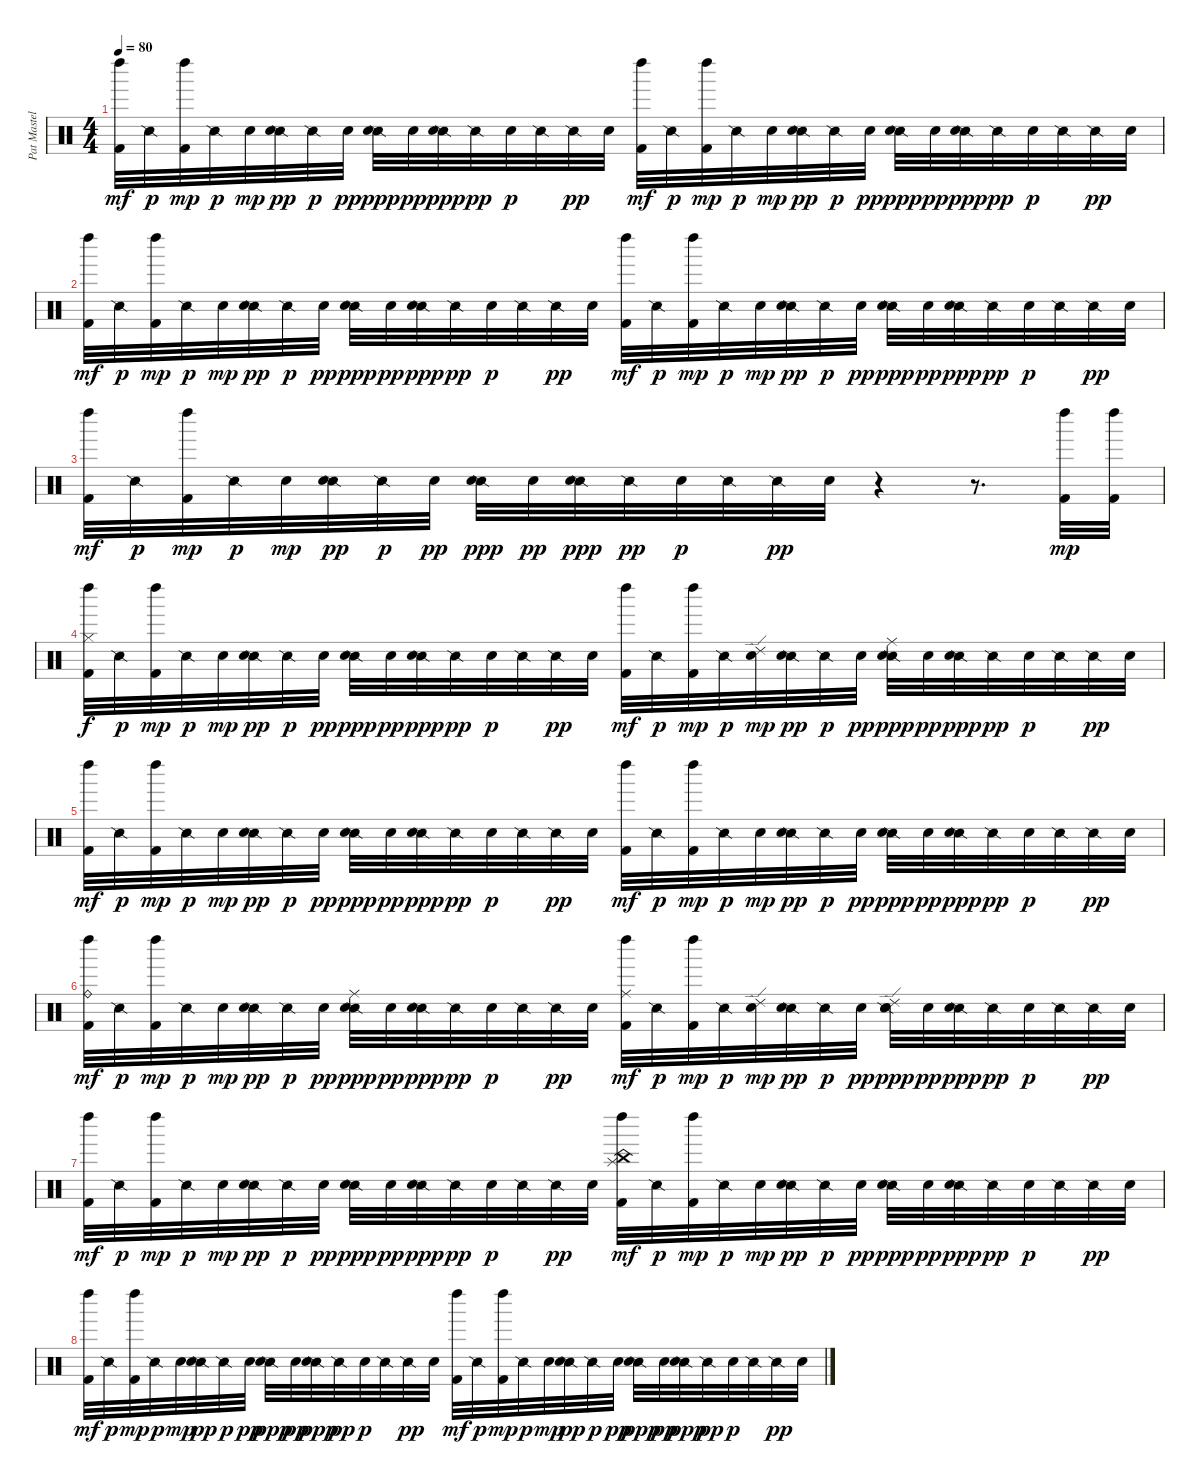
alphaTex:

\track ("Pat Mastelotto (Traps / Buttons)" "Pat Mastel") {instrument percussion}
\staff {score}
\articulation defaults
\ts (4 4)
\tempo 80
\clef neutral
\ks c
("Left Maraca (hit)" "Kick (hit) 2").32{dy mf} "Snare (side stick) 2".32{dy p} ("Left Maraca (hit)" "Kick (hit) 2").32{dy mp} "Snare (side stick) 2".32{dy p} "Electric Snare (hit)".32{dy mp} ("Snare (side stick) 2" "Electric Snare (hit)").32{dy pp} "Snare (side stick) 2".32{dy p} "Electric Snare (hit)".32{dy pp} ("Snare (side stick) 2" "Electric Snare (hit)").32{dy ppp} "Electric Snare (hit)".32{dy pp} ("Snare (side stick) 2" "Electric Snare (hit)").32{dy ppp} "Snare (side stick) 2".32{dy pp} "Electric Snare (hit)".32{dy p} "Snare (side stick) 2".32 "Snare (side stick) 2".32{dy pp} "Electric Snare (hit)".32 ("Left Maraca (hit)" "Kick (hit) 2").32{dy mf} "Snare (side stick) 2".32{dy p} ("Left Maraca (hit)" "Kick (hit) 2").32{dy mp} "Snare (side stick) 2".32{dy p} "Electric Snare (hit)".32{dy mp} ("Snare (side stick) 2" "Electric Snare (hit)").32{dy pp} "Snare (side stick) 2".32{dy p} "Electric Snare (hit)".32{dy pp} ("Snare (side stick) 2" "Electric Snare (hit)").32{dy ppp} "Electric Snare (hit)".32{dy pp} ("Snare (side stick) 2" "Electric Snare (hit)").32{dy ppp} "Snare (side stick) 2".32{dy pp} "Electric Snare (hit)".32{dy p} "Snare (side stick) 2".32 "Snare (side stick) 2".32{dy pp} "Electric Snare (hit)".32 |
("Left Maraca (hit)" "Kick (hit) 2").32{dy mf} "Snare (side stick) 2".32{dy p} ("Left Maraca (hit)" "Kick (hit) 2").32{dy mp} "Snare (side stick) 2".32{dy p} "Electric Snare (hit)".32{dy mp} ("Snare (side stick) 2" "Electric Snare (hit)").32{dy pp} "Snare (side stick) 2".32{dy p} "Electric Snare (hit)".32{dy pp} ("Snare (side stick) 2" "Electric Snare (hit)").32{dy ppp} "Electric Snare (hit)".32{dy pp} ("Snare (side stick) 2" "Electric Snare (hit)").32{dy ppp} "Snare (side stick) 2".32{dy pp} "Electric Snare (hit)".32{dy p} "Snare (side stick) 2".32 "Snare (side stick) 2".32{dy pp} "Electric Snare (hit)".32 ("Left Maraca (hit)" "Kick (hit) 2").32{dy mf} "Snare (side stick) 2".32{dy p} ("Left Maraca (hit)" "Kick (hit) 2").32{dy mp} "Snare (side stick) 2".32{dy p} "Electric Snare (hit)".32{dy mp} ("Snare (side stick) 2" "Electric Snare (hit)").32{dy pp} "Snare (side stick) 2".32{dy p} "Electric Snare (hit)".32{dy pp} ("Snare (side stick) 2" "Electric Snare (hit)").32{dy ppp} "Electric Snare (hit)".32{dy pp} ("Snare (side stick) 2" "Electric Snare (hit)").32{dy ppp} "Snare (side stick) 2".32{dy pp} "Electric Snare (hit)".32{dy p} "Snare (side stick) 2".32 "Snare (side stick) 2".32{dy pp} "Electric Snare (hit)".32 |
("Left Maraca (hit)" "Kick (hit) 2").32{dy mf} "Snare (side stick) 2".32{dy p} ("Left Maraca (hit)" "Kick (hit) 2").32{dy mp} "Snare (side stick) 2".32{dy p} "Electric Snare (hit)".32{dy mp} ("Snare (side stick) 2" "Electric Snare (hit)").32{dy pp} "Snare (side stick) 2".32{dy p} "Electric Snare (hit)".32{dy pp} ("Snare (side stick) 2" "Electric Snare (hit)").32{dy ppp} "Electric Snare (hit)".32{dy pp} ("Snare (side stick) 2" "Electric Snare (hit)").32{dy ppp} "Snare (side stick) 2".32{dy pp} "Electric Snare (hit)".32{dy p} "Snare (side stick) 2".32 "Snare (side stick) 2".32{dy pp} "Electric Snare (hit)".32 r.4 r.8{d} ("Left Maraca (hit)" "Kick (hit) 2").32{dy mp} ("Left Maraca (hit)" "Kick (hit) 2").32 |
("Hi-Hat (closed)" "Left Maraca (hit)" "Kick (hit) 2").32{dy f} "Snare (side stick) 2".32{dy p} ("Left Maraca (hit)" "Kick (hit) 2").32{dy mp} "Snare (side stick) 2".32{dy p} "Electric Snare (hit)".32{dy mp} ("Snare (side stick) 2" "Electric Snare (hit)").32{dy pp} "Snare (side stick) 2".32{dy p} "Electric Snare (hit)".32{dy pp} ("Snare (side stick) 2" "Electric Snare (hit)").32{dy ppp} "Electric Snare (hit)".32{dy pp} ("Snare (side stick) 2" "Electric Snare (hit)").32{dy ppp} "Snare (side stick) 2".32{dy pp} "Electric Snare (hit)".32{dy p} "Snare (side stick) 2".32 "Snare (side stick) 2".32{dy pp} "Electric Snare (hit)".32 ("Left Maraca (hit)" "Kick (hit) 2").32{dy mf} "Snare (side stick) 2".32{dy p} ("Left Maraca (hit)" "Kick (hit) 2").32{dy mp} "Snare (side stick) 2".32{dy p} ("Ride (edge) 2" "Electric Snare (hit)").32{dy mp} ("Snare (side stick) 2" "Electric Snare (hit)").32{dy pp} "Snare (side stick) 2".32{dy p} "Electric Snare (hit)".32{dy pp} ("Ride (middle)" "Snare (side stick) 2" "Electric Snare (hit)").32{dy ppp} "Electric Snare (hit)".32{dy pp} ("Snare (side stick) 2" "Electric Snare (hit)").32{dy ppp} "Snare (side stick) 2".32{dy pp} "Electric Snare (hit)".32{dy p} "Snare (side stick) 2".32 "Snare (side stick) 2".32{dy pp} "Electric Snare (hit)".32 |
("Left Maraca (hit)" "Kick (hit) 2").32{dy mf} "Snare (side stick) 2".32{dy p} ("Left Maraca (hit)" "Kick (hit) 2").32{dy mp} "Snare (side stick) 2".32{dy p} "Electric Snare (hit)".32{dy mp} ("Snare (side stick) 2" "Electric Snare (hit)").32{dy pp} "Snare (side stick) 2".32{dy p} "Electric Snare (hit)".32{dy pp} ("Snare (side stick) 2" "Electric Snare (hit)").32{dy ppp} "Electric Snare (hit)".32{dy pp} ("Snare (side stick) 2" "Electric Snare (hit)").32{dy ppp} "Snare (side stick) 2".32{dy pp} "Electric Snare (hit)".32{dy p} "Snare (side stick) 2".32 "Snare (side stick) 2".32{dy pp} "Electric Snare (hit)".32 ("Left Maraca (hit)" "Kick (hit) 2").32{dy mf} "Snare (side stick) 2".32{dy p} ("Left Maraca (hit)" "Kick (hit) 2").32{dy mp} "Snare (side stick) 2".32{dy p} "Electric Snare (hit)".32{dy mp} ("Snare (side stick) 2" "Electric Snare (hit)").32{dy pp} "Snare (side stick) 2".32{dy p} "Electric Snare (hit)".32{dy pp} ("Snare (side stick) 2" "Electric Snare (hit)").32{dy ppp} "Electric Snare (hit)".32{dy pp} ("Snare (side stick) 2" "Electric Snare (hit)").32{dy ppp} "Snare (side stick) 2".32{dy pp} "Electric Snare (hit)".32{dy p} "Snare (side stick) 2".32 "Snare (side stick) 2".32{dy pp} "Electric Snare (hit)".32 |
("Ride (bell)" "Left Maraca (hit)" "Kick (hit) 2").32{dy mf} "Snare (side stick) 2".32{dy p} ("Left Maraca (hit)" "Kick (hit) 2").32{dy mp} "Snare (side stick) 2".32{dy p} "Electric Snare (hit)".32{dy mp} ("Snare (side stick) 2" "Electric Snare (hit)").32{dy pp} "Snare (side stick) 2".32{dy p} "Electric Snare (hit)".32{dy pp} ("Ride (middle)" "Snare (side stick) 2" "Electric Snare (hit)").32{dy ppp} "Electric Snare (hit)".32{dy pp} ("Snare (side stick) 2" "Electric Snare (hit)").32{dy ppp} "Snare (side stick) 2".32{dy pp} "Electric Snare (hit)".32{dy p} "Snare (side stick) 2".32 "Snare (side stick) 2".32{dy pp} "Electric Snare (hit)".32 ("Ride (middle)" "Left Maraca (hit)" "Kick (hit) 2").32{dy mf} "Snare (side stick) 2".32{dy p} ("Left Maraca (hit)" "Kick (hit) 2").32{dy mp} "Snare (side stick) 2".32{dy p} ("Ride (edge) 2" "Electric Snare (hit)").32{dy mp} ("Snare (side stick) 2" "Electric Snare (hit)").32{dy pp} "Snare (side stick) 2".32{dy p} "Electric Snare (hit)".32{dy pp} ("Ride (edge) 2" "Snare (side stick) 2" "Electric Snare (hit)").32{dy ppp} "Electric Snare (hit)".32{dy pp} ("Snare (side stick) 2" "Electric Snare (hit)").32{dy ppp} "Snare (side stick) 2".32{dy pp} "Electric Snare (hit)".32{dy p} "Snare (side stick) 2".32 "Snare (side stick) 2".32{dy pp} "Electric Snare (hit)".32 |
("Left Maraca (hit)" "Kick (hit) 2").32{dy mf} "Snare (side stick) 2".32{dy p} ("Left Maraca (hit)" "Kick (hit) 2").32{dy mp} "Snare (side stick) 2".32{dy p} "Electric Snare (hit)".32{dy mp} ("Snare (side stick) 2" "Electric Snare (hit)").32{dy pp} "Snare (side stick) 2".32{dy p} "Electric Snare (hit)".32{dy pp} ("Snare (side stick) 2" "Electric Snare (hit)").32{dy ppp} "Electric Snare (hit)".32{dy pp} ("Snare (side stick) 2" "Electric Snare (hit)").32{dy ppp} "Snare (side stick) 2".32{dy pp} "Electric Snare (hit)".32{dy p} "Snare (side stick) 2".32 "Snare (side stick) 2".32{dy pp} "Electric Snare (hit)".32 ("Splash (hit)" "Left Maraca (hit)" "China (hit)" "Kick (hit) 2").32{dy mf} "Snare (side stick) 2".32{dy p} ("Left Maraca (hit)" "Kick (hit) 2").32{dy mp} "Snare (side stick) 2".32{dy p} "Electric Snare (hit)".32{dy mp} ("Snare (side stick) 2" "Electric Snare (hit)").32{dy pp} "Snare (side stick) 2".32{dy p} "Electric Snare (hit)".32{dy pp} ("Snare (side stick) 2" "Electric Snare (hit)").32{dy ppp} "Electric Snare (hit)".32{dy pp} ("Snare (side stick) 2" "Electric Snare (hit)").32{dy ppp} "Snare (side stick) 2".32{dy pp} "Electric Snare (hit)".32{dy p} "Snare (side stick) 2".32 "Snare (side stick) 2".32{dy pp} "Electric Snare (hit)".32 |
("Left Maraca (hit)" "Kick (hit) 2").32{dy mf} "Snare (side stick) 2".32{dy p} ("Left Maraca (hit)" "Kick (hit) 2").32{dy mp} "Snare (side stick) 2".32{dy p} "Electric Snare (hit)".32{dy mp} ("Snare (side stick) 2" "Electric Snare (hit)").32{dy pp} "Snare (side stick) 2".32{dy p} "Electric Snare (hit)".32{dy pp} ("Snare (side stick) 2" "Electric Snare (hit)").32{dy ppp} "Electric Snare (hit)".32{dy pp} ("Snare (side stick) 2" "Electric Snare (hit)").32{dy ppp} "Snare (side stick) 2".32{dy pp} "Electric Snare (hit)".32{dy p} "Snare (side stick) 2".32 "Snare (side stick) 2".32{dy pp} "Electric Snare (hit)".32 ("Left Maraca (hit)" "Kick (hit) 2").32{dy mf} "Snare (side stick) 2".32{dy p} ("Left Maraca (hit)" "Kick (hit) 2").32{dy mp} "Snare (side stick) 2".32{dy p} "Electric Snare (hit)".32{dy mp} ("Snare (side stick) 2" "Electric Snare (hit)").32{dy pp} "Snare (side stick) 2".32{dy p} "Electric Snare (hit)".32{dy pp} ("Snare (side stick) 2" "Electric Snare (hit)").32{dy ppp} "Electric Snare (hit)".32{dy pp} ("Snare (side stick) 2" "Electric Snare (hit)").32{dy ppp} "Snare (side stick) 2".32{dy pp} "Electric Snare (hit)".32{dy p} "Snare (side stick) 2".32 "Snare (side stick) 2".32{dy pp} "Electric Snare (hit)".32
